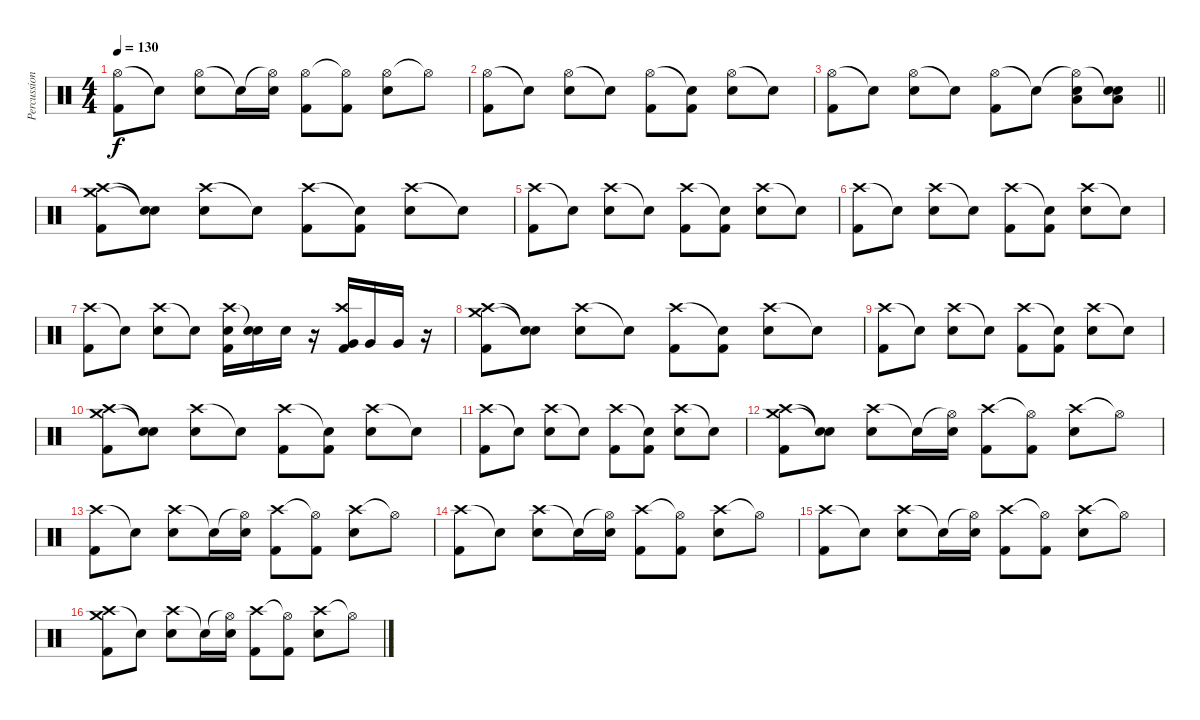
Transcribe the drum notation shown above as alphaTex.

\track ("Percussion" "Percussion") {instrument percussion}
\staff {score}
\articulation defaults
\ts (4 4)
\tempo 130
\clef neutral
\ks c
("Hi-Hat (open)" "Kick (hit) 2").8{dy f} "Snare (hit)"{t}.8 ("Hi-Hat (open)" "Electric Snare (hit)").8 "Snare (hit)"{t}.16 ("Hi-Hat (open)"{t} "Electric Snare (hit)").16 ("Hi-Hat (open)" "Kick (hit) 2").8 ("Hi-Hat (open)"{t} "Kick (hit) 2").8 ("Hi-Hat (open)" "Electric Snare (hit)").8 "Hi-Hat (open)"{t}.8 |
("Hi-Hat (open)" "Kick (hit) 2").8 "Snare (hit)"{t}.8 ("Hi-Hat (open)" "Electric Snare (hit)").8 "Snare (hit)"{t}.8 ("Hi-Hat (open)" "Kick (hit) 2").8 ("Snare (hit)"{t} "Kick (hit) 2").8 ("Hi-Hat (open)" "Electric Snare (hit)").8 "Snare (hit)"{t}.8 |
\barLineRight lightlight
("Hi-Hat (open)" "Kick (hit) 2").8 "Snare (hit)"{t}.8 ("Hi-Hat (open)" "Electric Snare (hit)").8 "Snare (hit)"{t}.8 ("Hi-Hat (open)" "Kick (hit) 2").8 "Snare (hit)"{t}.8 ("Hi-Hat (open)"{t} "Electric Snare (hit)" "Low Floor Tom (hit)").8 ("Snare (hit)"{t} "Electric Snare (hit)" "Low Floor Tom (hit)").8 |
("Crash medium (hit)" "Crash high (hit)" "Kick (hit) 2").8 ("Snare (hit)"{t} "Snare (hit)"{t}).8 ("Crash high (hit)" "Electric Snare (hit)").8 "Snare (hit)"{t}.8 ("Crash high (hit)" "Kick (hit) 2").8 ("Snare (hit)"{t} "Kick (hit) 2").8 ("Crash high (hit)" "Electric Snare (hit)").8 "Snare (hit)"{t}.8 |
("Crash high (hit)" "Kick (hit) 2").8 "Snare (hit)"{t}.8 ("Crash high (hit)" "Electric Snare (hit)").8 "Snare (hit)"{t}.8 ("Crash high (hit)" "Kick (hit) 2").8 ("Snare (hit)"{t} "Kick (hit) 2").8 ("Crash high (hit)" "Electric Snare (hit)").8 "Snare (hit)"{t}.8 |
("Crash high (hit)" "Kick (hit) 2").8 "Snare (hit)"{t}.8 ("Crash high (hit)" "Electric Snare (hit)").8 "Snare (hit)"{t}.8 ("Crash high (hit)" "Kick (hit) 2").8 ("Snare (hit)"{t} "Kick (hit) 2").8 ("Crash high (hit)" "Electric Snare (hit)").8 "Snare (hit)"{t}.8 |
("Crash high (hit)" "Kick (hit) 2").8 "Snare (hit)"{t}.8 ("Crash high (hit)" "Electric Snare (hit)").8 "Snare (hit)"{t}.8 ("Crash high (hit)" "Electric Snare (hit)" "Kick (hit) 2").16 ("Snare (hit)"{t} "Electric Snare (hit)").16 "Electric Snare (hit)".16 r.16 ("Crash high (hit)" "Very Low Tom (hit)" "Kick (hit) 2").16 "Very Low Tom (hit)".16 "Very Low Tom (hit)".16 r.16 |
("Crash medium (hit)" "Crash high (hit)" "Kick (hit) 2").8 ("Snare (hit)"{t} "Snare (hit)"{t}).8 ("Crash high (hit)" "Electric Snare (hit)").8 "Snare (hit)"{t}.8 ("Crash high (hit)" "Kick (hit) 2").8 ("Snare (hit)"{t} "Kick (hit) 2").8 ("Crash high (hit)" "Electric Snare (hit)").8 "Snare (hit)"{t}.8 |
("Crash high (hit)" "Kick (hit) 2").8 "Snare (hit)"{t}.8 ("Crash high (hit)" "Electric Snare (hit)").8 "Snare (hit)"{t}.8 ("Crash high (hit)" "Kick (hit) 2").8 ("Snare (hit)"{t} "Kick (hit) 2").8 ("Crash high (hit)" "Electric Snare (hit)").8 "Snare (hit)"{t}.8 |
("Crash medium (hit)" "Crash high (hit)" "Kick (hit) 2").8 ("Snare (hit)"{t} "Snare (hit)"{t}).8 ("Crash high (hit)" "Electric Snare (hit)").8 "Snare (hit)"{t}.8 ("Crash high (hit)" "Kick (hit) 2").8 ("Snare (hit)"{t} "Kick (hit) 2").8 ("Crash high (hit)" "Electric Snare (hit)").8 "Snare (hit)"{t}.8 |
("Crash high (hit)" "Kick (hit) 2").8 "Snare (hit)"{t}.8 ("Crash high (hit)" "Electric Snare (hit)").8 "Snare (hit)"{t}.8 ("Crash high (hit)" "Kick (hit) 2").8 ("Snare (hit)"{t} "Kick (hit) 2").8 ("Crash high (hit)" "Electric Snare (hit)").8 "Snare (hit)"{t}.8 |
("Crash medium (hit)" "Crash high (hit)" "Kick (hit) 2").8 ("Snare (hit)"{t} "Snare (hit)"{t}).8 ("Crash high (hit)" "Electric Snare (hit)").8 "Snare (hit)"{t}.16 ("Hi-Hat (open)"{t} "Electric Snare (hit)").16 ("Crash high (hit)" "Kick (hit) 2").8 ("Hi-Hat (open)"{t} "Kick (hit) 2").8 ("Crash high (hit)" "Electric Snare (hit)").8 "Hi-Hat (open)"{t}.8 |
("Crash high (hit)" "Kick (hit) 2").8 "Snare (hit)"{t}.8 ("Crash high (hit)" "Electric Snare (hit)").8 "Snare (hit)"{t}.16 ("Hi-Hat (open)"{t} "Electric Snare (hit)").16 ("Crash high (hit)" "Kick (hit) 2").8 ("Hi-Hat (open)"{t} "Kick (hit) 2").8 ("Crash high (hit)" "Electric Snare (hit)").8 "Hi-Hat (open)"{t}.8 |
("Crash high (hit)" "Kick (hit) 2").8 "Snare (hit)"{t}.8 ("Crash high (hit)" "Electric Snare (hit)").8 "Snare (hit)"{t}.16 ("Hi-Hat (open)"{t} "Electric Snare (hit)").16 ("Crash high (hit)" "Kick (hit) 2").8 ("Hi-Hat (open)"{t} "Kick (hit) 2").8 ("Crash high (hit)" "Electric Snare (hit)").8 "Hi-Hat (open)"{t}.8 |
("Crash high (hit)" "Kick (hit) 2").8 "Snare (hit)"{t}.8 ("Crash high (hit)" "Electric Snare (hit)").8 "Snare (hit)"{t}.16 ("Hi-Hat (open)"{t} "Electric Snare (hit)").16 ("Crash high (hit)" "Kick (hit) 2").8 ("Hi-Hat (open)"{t} "Kick (hit) 2").8 ("Crash high (hit)" "Electric Snare (hit)").8 "Hi-Hat (open)"{t}.8 |
("Crash high (hit)" "Crash medium (hit)" "Kick (hit) 2").8 "Snare (hit)"{t}.8 ("Crash high (hit)" "Electric Snare (hit)").8 "Snare (hit)"{t}.16 ("Hi-Hat (open)"{t} "Electric Snare (hit)").16 ("Crash high (hit)" "Kick (hit) 2").8 ("Hi-Hat (open)"{t} "Kick (hit) 2").8 ("Crash high (hit)" "Electric Snare (hit)").8 "Hi-Hat (open)"{t}.8
